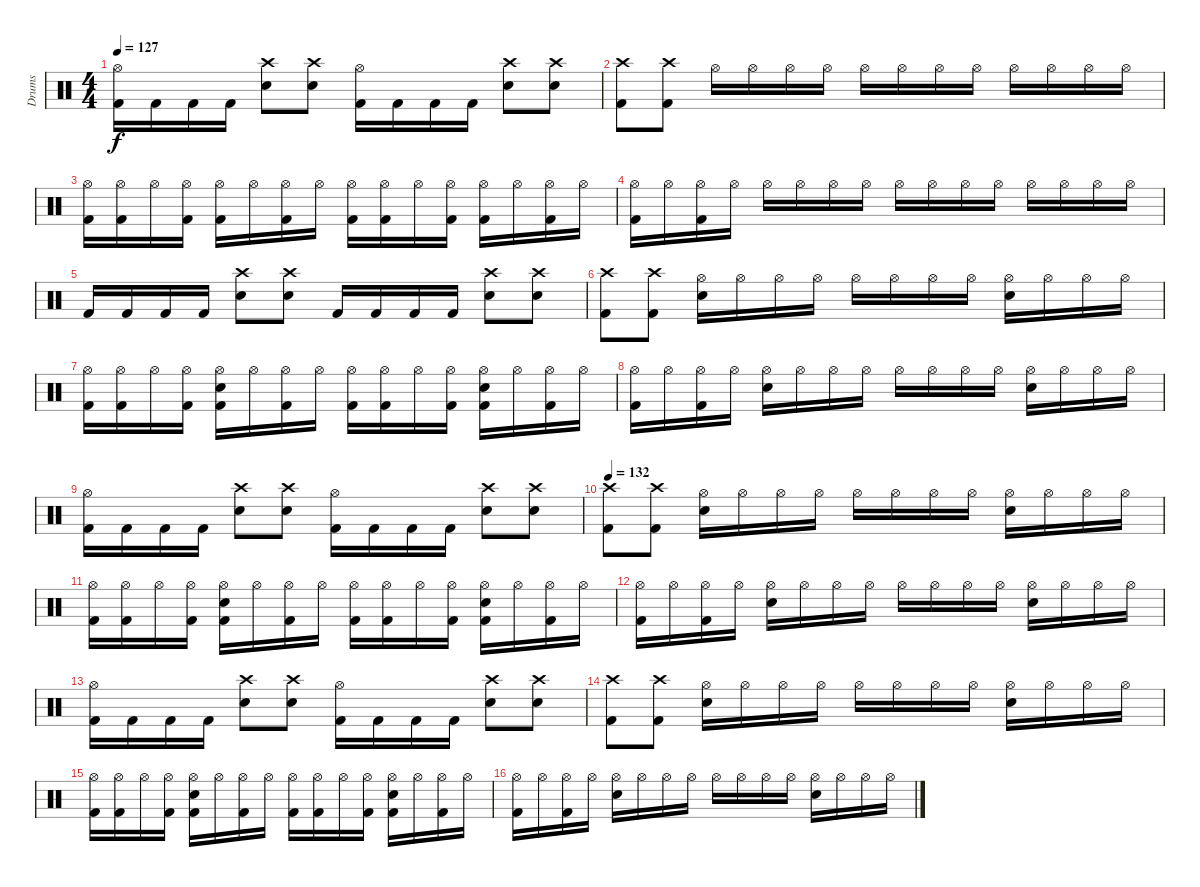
\track ("Drums" "Drums") {instrument percussion}
\staff {score}
\articulation defaults
\ts (4 4)
\tempo 127
\clef neutral
\ks c
("Hi-Hat (open)" "Kick (hit) 2").16{dy f volume 12} "Kick (hit) 2".16 "Kick (hit) 2".16 "Kick (hit) 2".16 ("Crash high (hit)" "Electric Snare (hit)").8 ("Crash high (hit)" "Electric Snare (hit)").8 ("Hi-Hat (open)" "Kick (hit) 2").16 "Kick (hit) 2".16 "Kick (hit) 2".16 "Kick (hit) 2".16 ("Crash high (hit)" "Electric Snare (hit)").8 ("Crash high (hit)" "Electric Snare (hit)").8 |
("Crash high (hit)" "Kick (hit) 2").8 ("Crash high (hit)" "Kick (hit) 2").8 "Hi-Hat (open)".16{volume 13} "Hi-Hat (open)".16{volume 9} "Hi-Hat (open)".16{volume 7} "Hi-Hat (open)".16{volume 7} "Hi-Hat (open)".16{volume 14} "Hi-Hat (open)".16{volume 10} "Hi-Hat (open)".16{volume 7} "Hi-Hat (open)".16{volume 7} "Hi-Hat (open)".16{volume 13} "Hi-Hat (open)".16{volume 10} "Hi-Hat (open)".16{volume 7} "Hi-Hat (open)".16{volume 7} |
("Hi-Hat (open)" "Kick (hit) 2").16{volume 13} ("Hi-Hat (open)" "Kick (hit) 2").16{volume 11} "Hi-Hat (open)".16{volume 7} ("Hi-Hat (open)" "Kick (hit) 2").16{volume 6} ("Hi-Hat (open)" "Kick (hit) 2").16{volume 13} "Hi-Hat (open)".16{volume 10} ("Hi-Hat (open)" "Kick (hit) 2").16{volume 8} "Hi-Hat (open)".16{volume 7} ("Hi-Hat (open)" "Kick (hit) 2").16{volume 13} ("Hi-Hat (open)" "Kick (hit) 2").16{volume 10} "Hi-Hat (open)".16{volume 8} ("Hi-Hat (open)" "Kick (hit) 2").16{volume 6} ("Hi-Hat (open)" "Kick (hit) 2").16{volume 13} "Hi-Hat (open)".16{volume 10} ("Hi-Hat (open)" "Kick (hit) 2").16{volume 9} "Hi-Hat (open)".16{volume 7} |
("Hi-Hat (open)" "Kick (hit) 2").16{volume 13} "Hi-Hat (open)".16{volume 11} ("Hi-Hat (open)" "Kick (hit) 2").16{volume 7} "Hi-Hat (open)".16{volume 6} "Hi-Hat (open)".16{volume 13} "Hi-Hat (open)".16{volume 10} "Hi-Hat (open)".16{volume 8} "Hi-Hat (open)".16{volume 7} "Hi-Hat (open)".16{volume 13} "Hi-Hat (open)".16{volume 10} "Hi-Hat (open)".16{volume 8} "Hi-Hat (open)".16{volume 6} "Hi-Hat (open)".16{volume 13} "Hi-Hat (open)".16{volume 10} "Hi-Hat (open)".16{volume 9} "Hi-Hat (open)".16{volume 7} |
"Kick (hit) 2".16{volume 13} "Kick (hit) 2".16 "Kick (hit) 2".16 "Kick (hit) 2".16 ("Crash high (hit)" "Electric Snare (hit)").8 ("Crash high (hit)" "Electric Snare (hit)").8 "Kick (hit) 2".16 "Kick (hit) 2".16 "Kick (hit) 2".16 "Kick (hit) 2".16 ("Crash high (hit)" "Electric Snare (hit)").8 ("Crash high (hit)" "Electric Snare (hit)").8 |
("Crash high (hit)" "Kick (hit) 2").8 ("Crash high (hit)" "Kick (hit) 2").8 ("Hi-Hat (open)" "Electric Snare (hit)").16{volume 13} "Hi-Hat (open)".16{volume 9} "Hi-Hat (open)".16{volume 7} "Hi-Hat (open)".16{volume 7} "Hi-Hat (open)".16{volume 14} "Hi-Hat (open)".16{volume 10} "Hi-Hat (open)".16{volume 7} "Hi-Hat (open)".16{volume 7} ("Hi-Hat (open)" "Electric Snare (hit)").16{volume 13} "Hi-Hat (open)".16{volume 10} "Hi-Hat (open)".16{volume 7} "Hi-Hat (open)".16{volume 7} |
("Hi-Hat (open)" "Kick (hit) 2").16{volume 13} ("Hi-Hat (open)" "Kick (hit) 2").16{volume 11} "Hi-Hat (open)".16{volume 7} ("Hi-Hat (open)" "Kick (hit) 2").16{volume 6} ("Hi-Hat (open)" "Electric Snare (hit)" "Kick (hit) 2").16{volume 13} "Hi-Hat (open)".16{volume 10} ("Hi-Hat (open)" "Kick (hit) 2").16{volume 8} "Hi-Hat (open)".16{volume 7} ("Hi-Hat (open)" "Kick (hit) 2").16{volume 13} ("Hi-Hat (open)" "Kick (hit) 2").16{volume 10} "Hi-Hat (open)".16{volume 8} ("Hi-Hat (open)" "Kick (hit) 2").16{volume 6} ("Hi-Hat (open)" "Electric Snare (hit)" "Kick (hit) 2").16{volume 13} "Hi-Hat (open)".16{volume 10} ("Hi-Hat (open)" "Kick (hit) 2").16{volume 9} "Hi-Hat (open)".16{volume 7} |
("Hi-Hat (open)" "Kick (hit) 2").16{volume 13} "Hi-Hat (open)".16{volume 11} ("Hi-Hat (open)" "Kick (hit) 2").16{volume 7} "Hi-Hat (open)".16{volume 6} ("Hi-Hat (open)" "Electric Snare (hit)").16{volume 13} "Hi-Hat (open)".16{volume 10} "Hi-Hat (open)".16{volume 8} "Hi-Hat (open)".16{volume 7} "Hi-Hat (open)".16{volume 13} "Hi-Hat (open)".16{volume 10} "Hi-Hat (open)".16{volume 8} "Hi-Hat (open)".16{volume 6} ("Hi-Hat (open)" "Electric Snare (hit)").16{volume 13} "Hi-Hat (open)".16{volume 10} "Hi-Hat (open)".16{volume 9} "Hi-Hat (open)".16{volume 7} |
("Hi-Hat (open)" "Kick (hit) 2").16{volume 13} "Kick (hit) 2".16 "Kick (hit) 2".16 "Kick (hit) 2".16 ("Crash high (hit)" "Electric Snare (hit)").8 ("Crash high (hit)" "Electric Snare (hit)").8 ("Hi-Hat (open)" "Kick (hit) 2").16 "Kick (hit) 2".16 "Kick (hit) 2".16 "Kick (hit) 2".16 ("Crash high (hit)" "Electric Snare (hit)").8 ("Crash high (hit)" "Electric Snare (hit)").8 |
\tempo 132
("Crash high (hit)" "Kick (hit) 2").8 ("Crash high (hit)" "Kick (hit) 2").8 ("Hi-Hat (open)" "Electric Snare (hit)").16{volume 13} "Hi-Hat (open)".16{volume 9} "Hi-Hat (open)".16{volume 7} "Hi-Hat (open)".16{volume 7} "Hi-Hat (open)".16{volume 14} "Hi-Hat (open)".16{volume 10} "Hi-Hat (open)".16{volume 7} "Hi-Hat (open)".16{volume 7} ("Hi-Hat (open)" "Electric Snare (hit)").16{volume 13} "Hi-Hat (open)".16{volume 10} "Hi-Hat (open)".16{volume 7} "Hi-Hat (open)".16{volume 7} |
("Hi-Hat (open)" "Kick (hit) 2").16{volume 13} ("Hi-Hat (open)" "Kick (hit) 2").16{volume 11} "Hi-Hat (open)".16{volume 7} ("Hi-Hat (open)" "Kick (hit) 2").16{volume 6} ("Hi-Hat (open)" "Electric Snare (hit)" "Kick (hit) 2").16{volume 13} "Hi-Hat (open)".16{volume 10} ("Hi-Hat (open)" "Kick (hit) 2").16{volume 8} "Hi-Hat (open)".16{volume 7} ("Hi-Hat (open)" "Kick (hit) 2").16{volume 13} ("Hi-Hat (open)" "Kick (hit) 2").16{volume 10} "Hi-Hat (open)".16{volume 8} ("Hi-Hat (open)" "Kick (hit) 2").16{volume 6} ("Hi-Hat (open)" "Electric Snare (hit)" "Kick (hit) 2").16{volume 13} "Hi-Hat (open)".16{volume 10} ("Hi-Hat (open)" "Kick (hit) 2").16{volume 9} "Hi-Hat (open)".16{volume 7} |
("Hi-Hat (open)" "Kick (hit) 2").16{volume 13} "Hi-Hat (open)".16{volume 11} ("Hi-Hat (open)" "Kick (hit) 2").16{volume 7} "Hi-Hat (open)".16{volume 6} ("Hi-Hat (open)" "Electric Snare (hit)").16{volume 13} "Hi-Hat (open)".16{volume 10} "Hi-Hat (open)".16{volume 8} "Hi-Hat (open)".16{volume 7} "Hi-Hat (open)".16{volume 13} "Hi-Hat (open)".16{volume 10} "Hi-Hat (open)".16{volume 8} "Hi-Hat (open)".16{volume 6} ("Hi-Hat (open)" "Electric Snare (hit)").16{volume 13} "Hi-Hat (open)".16{volume 10} "Hi-Hat (open)".16{volume 9} "Hi-Hat (open)".16{volume 7} |
("Hi-Hat (open)" "Kick (hit) 2").16{volume 13} "Kick (hit) 2".16 "Kick (hit) 2".16 "Kick (hit) 2".16 ("Crash high (hit)" "Electric Snare (hit)").8 ("Crash high (hit)" "Electric Snare (hit)").8 ("Hi-Hat (open)" "Kick (hit) 2").16 "Kick (hit) 2".16 "Kick (hit) 2".16 "Kick (hit) 2".16 ("Crash high (hit)" "Electric Snare (hit)").8 ("Crash high (hit)" "Electric Snare (hit)").8 |
("Crash high (hit)" "Kick (hit) 2").8 ("Crash high (hit)" "Kick (hit) 2").8 ("Hi-Hat (open)" "Electric Snare (hit)").16{volume 13} "Hi-Hat (open)".16{volume 9} "Hi-Hat (open)".16{volume 7} "Hi-Hat (open)".16{volume 7} "Hi-Hat (open)".16{volume 14} "Hi-Hat (open)".16{volume 10} "Hi-Hat (open)".16{volume 7} "Hi-Hat (open)".16{volume 7} ("Hi-Hat (open)" "Electric Snare (hit)").16{volume 13} "Hi-Hat (open)".16{volume 10} "Hi-Hat (open)".16{volume 7} "Hi-Hat (open)".16{volume 7} |
("Hi-Hat (open)" "Kick (hit) 2").16{volume 13} ("Hi-Hat (open)" "Kick (hit) 2").16{volume 11} "Hi-Hat (open)".16{volume 7} ("Hi-Hat (open)" "Kick (hit) 2").16{volume 6} ("Hi-Hat (open)" "Electric Snare (hit)" "Kick (hit) 2").16{volume 13} "Hi-Hat (open)".16{volume 10} ("Hi-Hat (open)" "Kick (hit) 2").16{volume 8} "Hi-Hat (open)".16{volume 7} ("Hi-Hat (open)" "Kick (hit) 2").16{volume 13} ("Hi-Hat (open)" "Kick (hit) 2").16{volume 10} "Hi-Hat (open)".16{volume 8} ("Hi-Hat (open)" "Kick (hit) 2").16{volume 6} ("Hi-Hat (open)" "Electric Snare (hit)" "Kick (hit) 2").16{volume 13} "Hi-Hat (open)".16{volume 10} ("Hi-Hat (open)" "Kick (hit) 2").16{volume 9} "Hi-Hat (open)".16{volume 7} |
("Hi-Hat (open)" "Kick (hit) 2").16{volume 13} "Hi-Hat (open)".16{volume 11} ("Hi-Hat (open)" "Kick (hit) 2").16{volume 7} "Hi-Hat (open)".16{volume 6} ("Hi-Hat (open)" "Electric Snare (hit)").16{volume 13} "Hi-Hat (open)".16{volume 10} "Hi-Hat (open)".16{volume 8} "Hi-Hat (open)".16{volume 7} "Hi-Hat (open)".16{volume 13} "Hi-Hat (open)".16{volume 10} "Hi-Hat (open)".16{volume 8} "Hi-Hat (open)".16{volume 6} ("Hi-Hat (open)" "Electric Snare (hit)").16{volume 13} "Hi-Hat (open)".16{volume 10} "Hi-Hat (open)".16{volume 9} "Hi-Hat (open)".16{volume 7}
